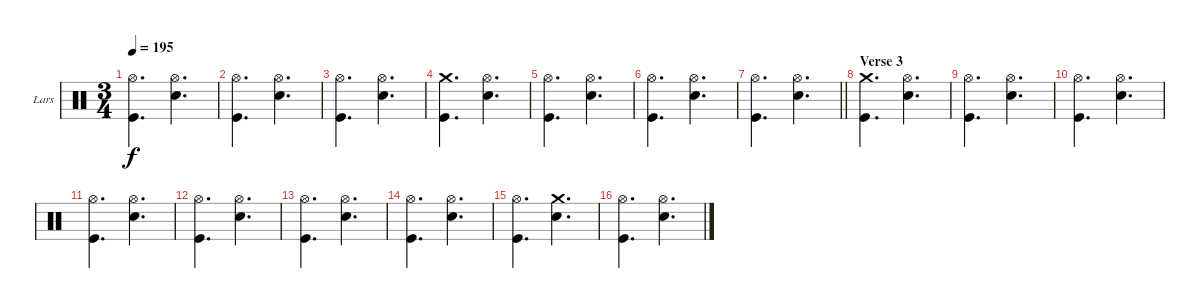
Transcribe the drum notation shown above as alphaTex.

\bracketExtendMode groupsimilarinstruments
\firstSystemTrackNameOrientation horizontal
\otherSystemsTrackNameOrientation horizontal
\track ("Drumkit" "Lars") {instrument percussion}
\staff {score}
\articulation defaults
\ts (3 4)
\tempo 195
\clef neutral
\ks c
("Hi-Hat (open)" "Kick (hit)").4{d dy f} ("Hi-Hat (open)" "Snare (hit) 2").4{d} |
("Hi-Hat (open)" "Kick (hit)").4{d} ("Hi-Hat (open)" "Snare (hit) 2").4{d} |
("Hi-Hat (open)" "Kick (hit)").4{d} ("Hi-Hat (open)" "Snare (hit) 2").4{d} |
("Crash medium (hit)" "Kick (hit)").4{d} ("Hi-Hat (open)" "Snare (hit) 2").4{d} |
("Hi-Hat (open)" "Kick (hit)").4{d} ("Hi-Hat (open)" "Snare (hit) 2").4{d} |
("Hi-Hat (open)" "Kick (hit)").4{d} ("Hi-Hat (open)" "Snare (hit) 2").4{d} |
\barLineRight lightlight
("Hi-Hat (open)" "Kick (hit)").4{d} ("Hi-Hat (open)" "Snare (hit) 2").4{d} |
\section ("" "Verse 3")
("Crash medium (hit)" "Kick (hit)").4{d} ("Hi-Hat (open)" "Snare (hit) 2").4{d} |
("Hi-Hat (open)" "Kick (hit)").4{d} ("Hi-Hat (open)" "Snare (hit) 2").4{d} |
("Hi-Hat (open)" "Kick (hit)").4{d} ("Hi-Hat (open)" "Snare (hit) 2").4{d} |
("Hi-Hat (open)" "Kick (hit)").4{d} ("Hi-Hat (open)" "Snare (hit) 2").4{d} |
("Hi-Hat (open)" "Kick (hit)").4{d} ("Hi-Hat (open)" "Snare (hit) 2").4{d} |
("Hi-Hat (open)" "Kick (hit)").4{d} ("Hi-Hat (open)" "Snare (hit) 2").4{d} |
("Hi-Hat (open)" "Kick (hit)").4{d} ("Hi-Hat (open)" "Snare (hit) 2").4{d} |
("Hi-Hat (open)" "Kick (hit)").4{d} ("Crash medium (hit)" "Snare (hit) 2").4{d} |
("Hi-Hat (open)" "Kick (hit)").4{d} ("Hi-Hat (open)" "Snare (hit) 2").4{d}
